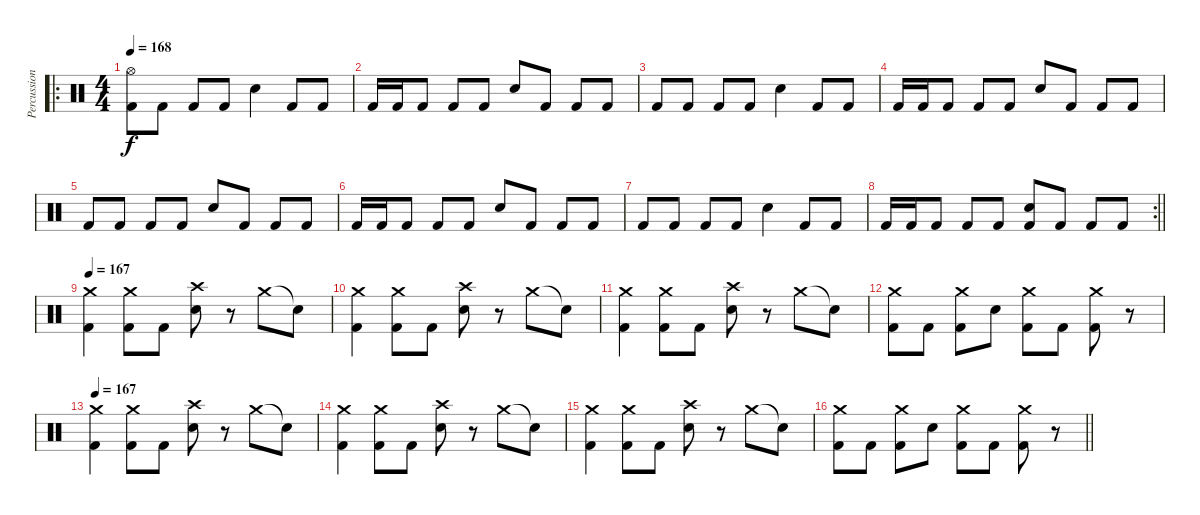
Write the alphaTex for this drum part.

\track ("Percussion" "Percussion") {instrument percussion}
\staff {score}
\articulation defaults
\ro
\ts (4 4)
\section ("" "")
\tempo 168
\clef neutral
\ks c
("Hi-Hat (open)" "Kick (hit) 2").8{dy f} "Kick (hit) 2".8 "Kick (hit) 2".8 "Kick (hit) 2".8 "Electric Snare (hit)".4 "Kick (hit) 2".8 "Kick (hit) 2".8 |
"Kick (hit) 2".16 "Kick (hit) 2".16 "Kick (hit) 2".8 "Kick (hit) 2".8 "Kick (hit) 2".8 "Electric Snare (hit)".8 "Kick (hit) 2".8 "Kick (hit) 2".8 "Kick (hit) 2".8 |
"Kick (hit) 2".8 "Kick (hit) 2".8 "Kick (hit) 2".8 "Kick (hit) 2".8 "Electric Snare (hit)".4 "Kick (hit) 2".8 "Kick (hit) 2".8 |
"Kick (hit) 2".16 "Kick (hit) 2".16 "Kick (hit) 2".8 "Kick (hit) 2".8 "Kick (hit) 2".8 "Electric Snare (hit)".8 "Kick (hit) 2".8 "Kick (hit) 2".8 "Kick (hit) 2".8 |
"Kick (hit) 2".8 "Kick (hit) 2".8 "Kick (hit) 2".8 "Kick (hit) 2".8 "Electric Snare (hit)".8 "Kick (hit) 2".8 "Kick (hit) 2".8 "Kick (hit) 2".8 |
"Kick (hit) 2".16 "Kick (hit) 2".16 "Kick (hit) 2".8 "Kick (hit) 2".8 "Kick (hit) 2".8 "Electric Snare (hit)".8 "Kick (hit) 2".8 "Kick (hit) 2".8 "Kick (hit) 2".8 |
"Kick (hit) 2".8 "Kick (hit) 2".8 "Kick (hit) 2".8 "Kick (hit) 2".8 "Electric Snare (hit)".4 "Kick (hit) 2".8 "Kick (hit) 2".8 |
\rc 2
\barLineRight lightlight "Kick (hit) 2".16 "Kick (hit) 2".16 "Kick (hit) 2".8 "Kick (hit) 2".8 "Kick (hit) 2".8
("Electric Snare (hit)" "Kick (hit) 2").8 "Kick (hit) 2".8 "Kick (hit) 2".8 "Kick (hit) 2".8 |
\section ("" "")
\tempo 167
("Crash medium (hit)" "Kick (hit) 2").4 ("Crash medium (hit)" "Kick (hit) 2").8 "Kick (hit) 2".8 ("Crash high (hit)" "Electric Snare (hit)").8 r.8 "Crash medium (hit)".8 "Snare (hit)"{t}.8 |
("Crash medium (hit)" "Kick (hit) 2").4 ("Crash medium (hit)" "Kick (hit) 2").8 "Kick (hit) 2".8 ("Crash high (hit)" "Electric Snare (hit)").8 r.8 "Crash medium (hit)".8 "Snare (hit)"{t}.8 |
("Crash medium (hit)" "Kick (hit) 2").4 ("Crash medium (hit)" "Kick (hit) 2").8 "Kick (hit) 2".8 ("Crash high (hit)" "Electric Snare (hit)").8 r.8 "Crash medium (hit)".8 "Snare (hit)"{t}.8 |
("Crash medium (hit)" "Kick (hit) 2").8 "Kick (hit) 2".8 ("Crash medium (hit)" "Kick (hit) 2").8 "Electric Snare (hit)".8 ("Crash medium (hit)" "Kick (hit) 2").8 "Kick (hit) 2".8 ("Crash medium (hit)" "Kick (hit) 2").8 r.8 |
\tempo 167
("Crash medium (hit)" "Kick (hit) 2").4 ("Crash medium (hit)" "Kick (hit) 2").8 "Kick (hit) 2".8 ("Crash high (hit)" "Electric Snare (hit)").8 r.8 "Crash medium (hit)".8 "Snare (hit)"{t}.8 |
("Crash medium (hit)" "Kick (hit) 2").4 ("Crash medium (hit)" "Kick (hit) 2").8 "Kick (hit) 2".8 ("Crash high (hit)" "Electric Snare (hit)").8 r.8 "Crash medium (hit)".8 "Snare (hit)"{t}.8 |
("Crash medium (hit)" "Kick (hit) 2").4 ("Crash medium (hit)" "Kick (hit) 2").8 "Kick (hit) 2".8 ("Crash high (hit)" "Electric Snare (hit)").8 r.8 "Crash medium (hit)".8 "Snare (hit)"{t}.8 |
\barLineRight lightlight
("Crash medium (hit)" "Kick (hit) 2").8 "Kick (hit) 2".8 ("Crash medium (hit)" "Kick (hit) 2").8 "Electric Snare (hit)".8 ("Crash medium (hit)" "Kick (hit) 2").8 "Kick (hit) 2".8 ("Crash medium (hit)" "Kick (hit) 2").8 r.8
